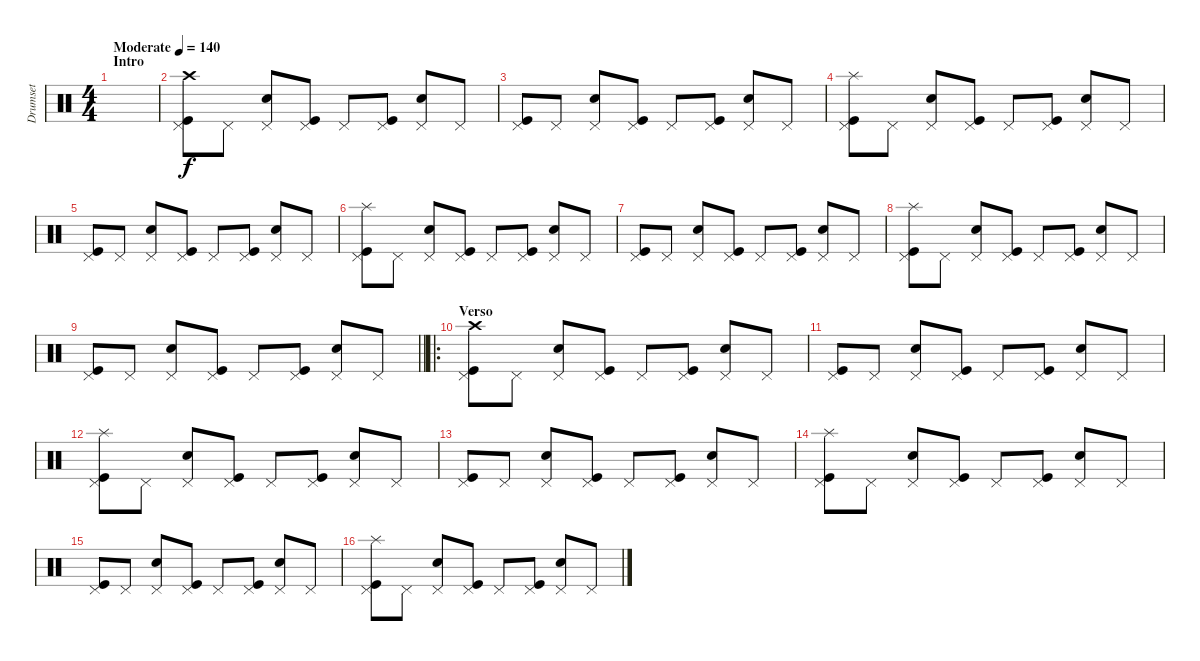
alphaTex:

\track ("Drumset" "Drumset") {instrument percussion}
\staff {score}
\articulation defaults
\ts (4 4)
\section ("" "Intro")
\tempo (140 "Moderate")
\clef neutral
\ks c
|
("Pedal Hi-Hat (hit)" "Kick (hit)" "Crash high (hit)").8 "Pedal Hi-Hat (hit)".8 ("Pedal Hi-Hat (hit)" "Snare (hit) 2").8 ("Pedal Hi-Hat (hit)" "Kick (hit)").8 "Pedal Hi-Hat (hit)".8 ("Pedal Hi-Hat (hit)" "Kick (hit)").8 ("Pedal Hi-Hat (hit)" "Snare (hit) 2").8 "Pedal Hi-Hat (hit)".8 |
("Pedal Hi-Hat (hit)" "Kick (hit)").8 "Pedal Hi-Hat (hit)".8 ("Pedal Hi-Hat (hit)" "Snare (hit) 2").8 ("Pedal Hi-Hat (hit)" "Kick (hit)").8 "Pedal Hi-Hat (hit)".8 ("Pedal Hi-Hat (hit)" "Kick (hit)").8 ("Pedal Hi-Hat (hit)" "Snare (hit) 2").8 "Pedal Hi-Hat (hit)".8 |
("Pedal Hi-Hat (hit)" "Kick (hit)" "Splash (hit)").8 "Pedal Hi-Hat (hit)".8 ("Pedal Hi-Hat (hit)" "Snare (hit) 2").8 ("Pedal Hi-Hat (hit)" "Kick (hit)").8 "Pedal Hi-Hat (hit)".8 ("Pedal Hi-Hat (hit)" "Kick (hit)").8 ("Pedal Hi-Hat (hit)" "Snare (hit) 2").8 "Pedal Hi-Hat (hit)".8 |
("Pedal Hi-Hat (hit)" "Kick (hit)").8 "Pedal Hi-Hat (hit)".8 ("Pedal Hi-Hat (hit)" "Snare (hit) 2").8 ("Pedal Hi-Hat (hit)" "Kick (hit)").8 "Pedal Hi-Hat (hit)".8 ("Pedal Hi-Hat (hit)" "Kick (hit)").8 ("Pedal Hi-Hat (hit)" "Snare (hit) 2").8 "Pedal Hi-Hat (hit)".8 |
("Pedal Hi-Hat (hit)" "Kick (hit)" "Splash (hit)").8 "Pedal Hi-Hat (hit)".8 ("Pedal Hi-Hat (hit)" "Snare (hit) 2").8 ("Pedal Hi-Hat (hit)" "Kick (hit)").8 "Pedal Hi-Hat (hit)".8 ("Pedal Hi-Hat (hit)" "Kick (hit)").8 ("Pedal Hi-Hat (hit)" "Snare (hit) 2").8 "Pedal Hi-Hat (hit)".8 |
("Pedal Hi-Hat (hit)" "Kick (hit)").8 "Pedal Hi-Hat (hit)".8 ("Pedal Hi-Hat (hit)" "Snare (hit) 2").8 ("Pedal Hi-Hat (hit)" "Kick (hit)").8 "Pedal Hi-Hat (hit)".8 ("Pedal Hi-Hat (hit)" "Kick (hit)").8 ("Pedal Hi-Hat (hit)" "Snare (hit) 2").8 "Pedal Hi-Hat (hit)".8 |
("Pedal Hi-Hat (hit)" "Kick (hit)" "Splash (hit)").8 "Pedal Hi-Hat (hit)".8 ("Pedal Hi-Hat (hit)" "Snare (hit) 2").8 ("Pedal Hi-Hat (hit)" "Kick (hit)").8 "Pedal Hi-Hat (hit)".8 ("Pedal Hi-Hat (hit)" "Kick (hit)").8 ("Pedal Hi-Hat (hit)" "Snare (hit) 2").8 "Pedal Hi-Hat (hit)".8 |
\barLineRight lightlight
("Pedal Hi-Hat (hit)" "Kick (hit)").8 "Pedal Hi-Hat (hit)".8 ("Pedal Hi-Hat (hit)" "Snare (hit) 2").8 ("Pedal Hi-Hat (hit)" "Kick (hit)").8 "Pedal Hi-Hat (hit)".8 ("Pedal Hi-Hat (hit)" "Kick (hit)").8 ("Pedal Hi-Hat (hit)" "Snare (hit) 2").8 "Pedal Hi-Hat (hit)".8 |
\ro
\section ("" "Verso")
("Pedal Hi-Hat (hit)" "Kick (hit)" "Crash high (hit)").8 "Pedal Hi-Hat (hit)".8 ("Pedal Hi-Hat (hit)" "Snare (hit) 2").8 ("Pedal Hi-Hat (hit)" "Kick (hit)").8 "Pedal Hi-Hat (hit)".8 ("Pedal Hi-Hat (hit)" "Kick (hit)").8 ("Pedal Hi-Hat (hit)" "Snare (hit) 2").8 "Pedal Hi-Hat (hit)".8 |
("Pedal Hi-Hat (hit)" "Kick (hit)").8 "Pedal Hi-Hat (hit)".8 ("Pedal Hi-Hat (hit)" "Snare (hit) 2").8 ("Pedal Hi-Hat (hit)" "Kick (hit)").8 "Pedal Hi-Hat (hit)".8 ("Pedal Hi-Hat (hit)" "Kick (hit)").8 ("Pedal Hi-Hat (hit)" "Snare (hit) 2").8 "Pedal Hi-Hat (hit)".8 |
("Pedal Hi-Hat (hit)" "Kick (hit)" "Splash (hit)").8 "Pedal Hi-Hat (hit)".8 ("Pedal Hi-Hat (hit)" "Snare (hit) 2").8 ("Pedal Hi-Hat (hit)" "Kick (hit)").8 "Pedal Hi-Hat (hit)".8 ("Pedal Hi-Hat (hit)" "Kick (hit)").8 ("Pedal Hi-Hat (hit)" "Snare (hit) 2").8 "Pedal Hi-Hat (hit)".8 |
("Pedal Hi-Hat (hit)" "Kick (hit)").8 "Pedal Hi-Hat (hit)".8 ("Pedal Hi-Hat (hit)" "Snare (hit) 2").8 ("Pedal Hi-Hat (hit)" "Kick (hit)").8 "Pedal Hi-Hat (hit)".8 ("Pedal Hi-Hat (hit)" "Kick (hit)").8 ("Pedal Hi-Hat (hit)" "Snare (hit) 2").8 "Pedal Hi-Hat (hit)".8 |
("Pedal Hi-Hat (hit)" "Kick (hit)" "Splash (hit)").8 "Pedal Hi-Hat (hit)".8 ("Pedal Hi-Hat (hit)" "Snare (hit) 2").8 ("Pedal Hi-Hat (hit)" "Kick (hit)").8 "Pedal Hi-Hat (hit)".8 ("Pedal Hi-Hat (hit)" "Kick (hit)").8 ("Pedal Hi-Hat (hit)" "Snare (hit) 2").8 "Pedal Hi-Hat (hit)".8 |
("Pedal Hi-Hat (hit)" "Kick (hit)").8 "Pedal Hi-Hat (hit)".8 ("Pedal Hi-Hat (hit)" "Snare (hit) 2").8 ("Pedal Hi-Hat (hit)" "Kick (hit)").8 "Pedal Hi-Hat (hit)".8 ("Pedal Hi-Hat (hit)" "Kick (hit)").8 ("Pedal Hi-Hat (hit)" "Snare (hit) 2").8 "Pedal Hi-Hat (hit)".8 |
("Pedal Hi-Hat (hit)" "Kick (hit)" "Splash (hit)").8 "Pedal Hi-Hat (hit)".8 ("Pedal Hi-Hat (hit)" "Snare (hit) 2").8 ("Pedal Hi-Hat (hit)" "Kick (hit)").8 "Pedal Hi-Hat (hit)".8 ("Pedal Hi-Hat (hit)" "Kick (hit)").8 ("Pedal Hi-Hat (hit)" "Snare (hit) 2").8 "Pedal Hi-Hat (hit)".8
